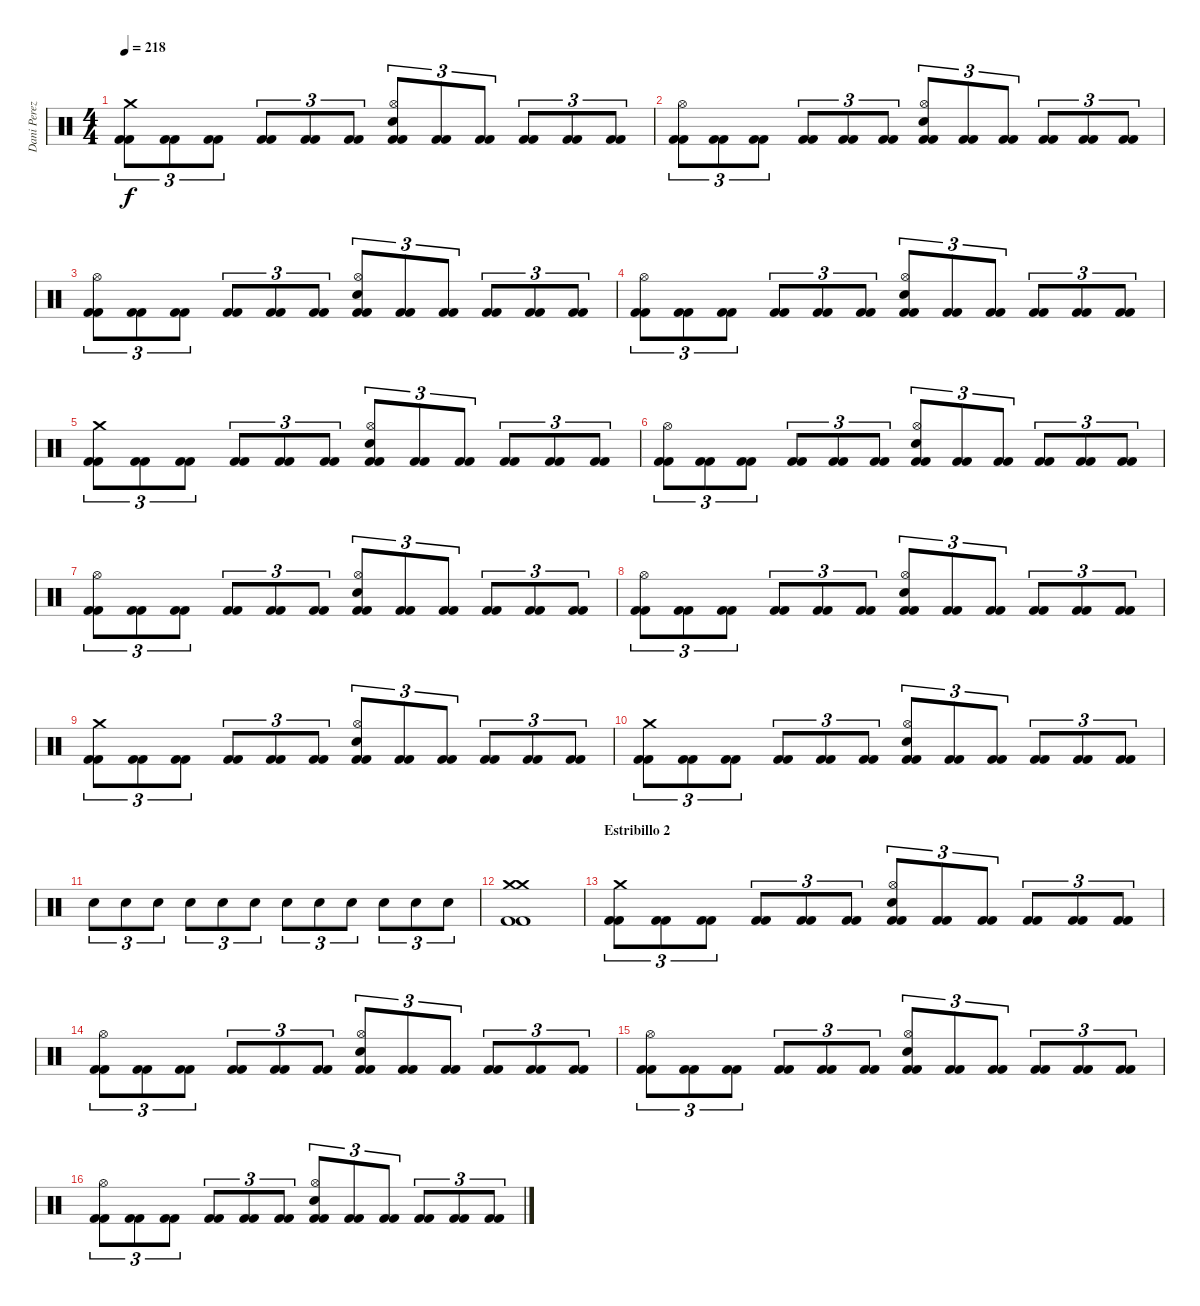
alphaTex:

\track ("Dani Perez" "Dani Perez") {instrument percussion}
\staff {score}
\articulation defaults
\ts (4 4)
\tempo 218
\clef neutral
\ks c
("Crash medium (hit)" "Kick (hit) 2" "Kick (hit) 2").8{tu (3 2) dy f} ("Kick (hit) 2" "Kick (hit) 2").8{tu (3 2)} ("Kick (hit) 2" "Kick (hit) 2").8{tu (3 2)} ("Kick (hit) 2" "Kick (hit) 2").8{tu (3 2)} ("Kick (hit) 2" "Kick (hit) 2").8{tu (3 2)} ("Kick (hit) 2" "Kick (hit) 2").8{tu (3 2)} ("Hi-Hat (open)" "Snare (hit) 2" "Kick (hit) 2" "Kick (hit) 2").8{tu (3 2)} ("Kick (hit) 2" "Kick (hit) 2").8{tu (3 2)} ("Kick (hit) 2" "Kick (hit) 2").8{tu (3 2)} ("Kick (hit) 2" "Kick (hit) 2").8{tu (3 2)} ("Kick (hit) 2" "Kick (hit) 2").8{tu (3 2)} ("Kick (hit) 2" "Kick (hit) 2").8{tu (3 2)} |
("Hi-Hat (open)" "Kick (hit) 2" "Kick (hit) 2").8{tu (3 2)} ("Kick (hit) 2" "Kick (hit) 2").8{tu (3 2)} ("Kick (hit) 2" "Kick (hit) 2").8{tu (3 2)} ("Kick (hit) 2" "Kick (hit) 2").8{tu (3 2)} ("Kick (hit) 2" "Kick (hit) 2").8{tu (3 2)} ("Kick (hit) 2" "Kick (hit) 2").8{tu (3 2)} ("Hi-Hat (open)" "Snare (hit) 2" "Kick (hit) 2" "Kick (hit) 2").8{tu (3 2)} ("Kick (hit) 2" "Kick (hit) 2").8{tu (3 2)} ("Kick (hit) 2" "Kick (hit) 2").8{tu (3 2)} ("Kick (hit) 2" "Kick (hit) 2").8{tu (3 2)} ("Kick (hit) 2" "Kick (hit) 2").8{tu (3 2)} ("Kick (hit) 2" "Kick (hit) 2").8{tu (3 2)} |
("Hi-Hat (open)" "Kick (hit) 2" "Kick (hit) 2").8{tu (3 2)} ("Kick (hit) 2" "Kick (hit) 2").8{tu (3 2)} ("Kick (hit) 2" "Kick (hit) 2").8{tu (3 2)} ("Kick (hit) 2" "Kick (hit) 2").8{tu (3 2)} ("Kick (hit) 2" "Kick (hit) 2").8{tu (3 2)} ("Kick (hit) 2" "Kick (hit) 2").8{tu (3 2)} ("Hi-Hat (open)" "Snare (hit) 2" "Kick (hit) 2" "Kick (hit) 2").8{tu (3 2)} ("Kick (hit) 2" "Kick (hit) 2").8{tu (3 2)} ("Kick (hit) 2" "Kick (hit) 2").8{tu (3 2)} ("Kick (hit) 2" "Kick (hit) 2").8{tu (3 2)} ("Kick (hit) 2" "Kick (hit) 2").8{tu (3 2)} ("Kick (hit) 2" "Kick (hit) 2").8{tu (3 2)} |
("Hi-Hat (open)" "Kick (hit) 2" "Kick (hit) 2").8{tu (3 2)} ("Kick (hit) 2" "Kick (hit) 2").8{tu (3 2)} ("Kick (hit) 2" "Kick (hit) 2").8{tu (3 2)} ("Kick (hit) 2" "Kick (hit) 2").8{tu (3 2)} ("Kick (hit) 2" "Kick (hit) 2").8{tu (3 2)} ("Kick (hit) 2" "Kick (hit) 2").8{tu (3 2)} ("Hi-Hat (open)" "Snare (hit) 2" "Kick (hit) 2" "Kick (hit) 2").8{tu (3 2)} ("Kick (hit) 2" "Kick (hit) 2").8{tu (3 2)} ("Kick (hit) 2" "Kick (hit) 2").8{tu (3 2)} ("Kick (hit) 2" "Kick (hit) 2").8{tu (3 2)} ("Kick (hit) 2" "Kick (hit) 2").8{tu (3 2)} ("Kick (hit) 2" "Kick (hit) 2").8{tu (3 2)} |
("Crash medium (hit)" "Kick (hit) 2" "Kick (hit) 2").8{tu (3 2)} ("Kick (hit) 2" "Kick (hit) 2").8{tu (3 2)} ("Kick (hit) 2" "Kick (hit) 2").8{tu (3 2)} ("Kick (hit) 2" "Kick (hit) 2").8{tu (3 2)} ("Kick (hit) 2" "Kick (hit) 2").8{tu (3 2)} ("Kick (hit) 2" "Kick (hit) 2").8{tu (3 2)} ("Hi-Hat (open)" "Snare (hit) 2" "Kick (hit) 2" "Kick (hit) 2").8{tu (3 2)} ("Kick (hit) 2" "Kick (hit) 2").8{tu (3 2)} ("Kick (hit) 2" "Kick (hit) 2").8{tu (3 2)} ("Kick (hit) 2" "Kick (hit) 2").8{tu (3 2)} ("Kick (hit) 2" "Kick (hit) 2").8{tu (3 2)} ("Kick (hit) 2" "Kick (hit) 2").8{tu (3 2)} |
("Hi-Hat (open)" "Kick (hit) 2" "Kick (hit) 2").8{tu (3 2)} ("Kick (hit) 2" "Kick (hit) 2").8{tu (3 2)} ("Kick (hit) 2" "Kick (hit) 2").8{tu (3 2)} ("Kick (hit) 2" "Kick (hit) 2").8{tu (3 2)} ("Kick (hit) 2" "Kick (hit) 2").8{tu (3 2)} ("Kick (hit) 2" "Kick (hit) 2").8{tu (3 2)} ("Hi-Hat (open)" "Snare (hit) 2" "Kick (hit) 2" "Kick (hit) 2").8{tu (3 2)} ("Kick (hit) 2" "Kick (hit) 2").8{tu (3 2)} ("Kick (hit) 2" "Kick (hit) 2").8{tu (3 2)} ("Kick (hit) 2" "Kick (hit) 2").8{tu (3 2)} ("Kick (hit) 2" "Kick (hit) 2").8{tu (3 2)} ("Kick (hit) 2" "Kick (hit) 2").8{tu (3 2)} |
("Hi-Hat (open)" "Kick (hit) 2" "Kick (hit) 2").8{tu (3 2)} ("Kick (hit) 2" "Kick (hit) 2").8{tu (3 2)} ("Kick (hit) 2" "Kick (hit) 2").8{tu (3 2)} ("Kick (hit) 2" "Kick (hit) 2").8{tu (3 2)} ("Kick (hit) 2" "Kick (hit) 2").8{tu (3 2)} ("Kick (hit) 2" "Kick (hit) 2").8{tu (3 2)} ("Hi-Hat (open)" "Snare (hit) 2" "Kick (hit) 2" "Kick (hit) 2").8{tu (3 2)} ("Kick (hit) 2" "Kick (hit) 2").8{tu (3 2)} ("Kick (hit) 2" "Kick (hit) 2").8{tu (3 2)} ("Kick (hit) 2" "Kick (hit) 2").8{tu (3 2)} ("Kick (hit) 2" "Kick (hit) 2").8{tu (3 2)} ("Kick (hit) 2" "Kick (hit) 2").8{tu (3 2)} |
("Hi-Hat (open)" "Kick (hit) 2" "Kick (hit) 2").8{tu (3 2)} ("Kick (hit) 2" "Kick (hit) 2").8{tu (3 2)} ("Kick (hit) 2" "Kick (hit) 2").8{tu (3 2)} ("Kick (hit) 2" "Kick (hit) 2").8{tu (3 2)} ("Kick (hit) 2" "Kick (hit) 2").8{tu (3 2)} ("Kick (hit) 2" "Kick (hit) 2").8{tu (3 2)} ("Hi-Hat (open)" "Snare (hit) 2" "Kick (hit) 2" "Kick (hit) 2").8{tu (3 2)} ("Kick (hit) 2" "Kick (hit) 2").8{tu (3 2)} ("Kick (hit) 2" "Kick (hit) 2").8{tu (3 2)} ("Kick (hit) 2" "Kick (hit) 2").8{tu (3 2)} ("Kick (hit) 2" "Kick (hit) 2").8{tu (3 2)} ("Kick (hit) 2" "Kick (hit) 2").8{tu (3 2)} |
("Crash medium (hit)" "Kick (hit) 2" "Kick (hit) 2").8{tu (3 2)} ("Kick (hit) 2" "Kick (hit) 2").8{tu (3 2)} ("Kick (hit) 2" "Kick (hit) 2").8{tu (3 2)} ("Kick (hit) 2" "Kick (hit) 2").8{tu (3 2)} ("Kick (hit) 2" "Kick (hit) 2").8{tu (3 2)} ("Kick (hit) 2" "Kick (hit) 2").8{tu (3 2)} ("Hi-Hat (open)" "Snare (hit) 2" "Kick (hit) 2" "Kick (hit) 2").8{tu (3 2)} ("Kick (hit) 2" "Kick (hit) 2").8{tu (3 2)} ("Kick (hit) 2" "Kick (hit) 2").8{tu (3 2)} ("Kick (hit) 2" "Kick (hit) 2").8{tu (3 2)} ("Kick (hit) 2" "Kick (hit) 2").8{tu (3 2)} ("Kick (hit) 2" "Kick (hit) 2").8{tu (3 2)} |
("Crash medium (hit)" "Kick (hit) 2" "Kick (hit) 2").8{tu (3 2)} ("Kick (hit) 2" "Kick (hit) 2").8{tu (3 2)} ("Kick (hit) 2" "Kick (hit) 2").8{tu (3 2)} ("Kick (hit) 2" "Kick (hit) 2").8{tu (3 2)} ("Kick (hit) 2" "Kick (hit) 2").8{tu (3 2)} ("Kick (hit) 2" "Kick (hit) 2").8{tu (3 2)} ("Hi-Hat (open)" "Snare (hit) 2" "Kick (hit) 2" "Kick (hit) 2").8{tu (3 2)} ("Kick (hit) 2" "Kick (hit) 2").8{tu (3 2)} ("Kick (hit) 2" "Kick (hit) 2").8{tu (3 2)} ("Kick (hit) 2" "Kick (hit) 2").8{tu (3 2)} ("Kick (hit) 2" "Kick (hit) 2").8{tu (3 2)} ("Kick (hit) 2" "Kick (hit) 2").8{tu (3 2)} |
"Snare (hit) 2".8{tu (3 2)} "Snare (hit) 2".8{tu (3 2)} "Snare (hit) 2".8{tu (3 2)} "Snare (hit) 2".8{tu (3 2)} "Snare (hit) 2".8{tu (3 2)} "Snare (hit) 2".8{tu (3 2)} "Snare (hit) 2".8{tu (3 2)} "Snare (hit) 2".8{tu (3 2)} "Snare (hit) 2".8{tu (3 2)} "Snare (hit) 2".8{tu (3 2)} "Snare (hit) 2".8{tu (3 2)} "Snare (hit) 2".8{tu (3 2)} |
("Crash medium (hit)" "Crash medium (hit)" "Kick (hit) 2" "Kick (hit) 2").1 |
\section ("" "Estribillo 2")
("Crash medium (hit)" "Kick (hit) 2" "Kick (hit) 2").8{tu (3 2)} ("Kick (hit) 2" "Kick (hit) 2").8{tu (3 2)} ("Kick (hit) 2" "Kick (hit) 2").8{tu (3 2)} ("Kick (hit) 2" "Kick (hit) 2").8{tu (3 2)} ("Kick (hit) 2" "Kick (hit) 2").8{tu (3 2)} ("Kick (hit) 2" "Kick (hit) 2").8{tu (3 2)} ("Hi-Hat (open)" "Snare (hit) 2" "Kick (hit) 2" "Kick (hit) 2").8{tu (3 2)} ("Kick (hit) 2" "Kick (hit) 2").8{tu (3 2)} ("Kick (hit) 2" "Kick (hit) 2").8{tu (3 2)} ("Kick (hit) 2" "Kick (hit) 2").8{tu (3 2)} ("Kick (hit) 2" "Kick (hit) 2").8{tu (3 2)} ("Kick (hit) 2" "Kick (hit) 2").8{tu (3 2)} |
("Hi-Hat (open)" "Kick (hit) 2" "Kick (hit) 2").8{tu (3 2)} ("Kick (hit) 2" "Kick (hit) 2").8{tu (3 2)} ("Kick (hit) 2" "Kick (hit) 2").8{tu (3 2)} ("Kick (hit) 2" "Kick (hit) 2").8{tu (3 2)} ("Kick (hit) 2" "Kick (hit) 2").8{tu (3 2)} ("Kick (hit) 2" "Kick (hit) 2").8{tu (3 2)} ("Hi-Hat (open)" "Snare (hit) 2" "Kick (hit) 2" "Kick (hit) 2").8{tu (3 2)} ("Kick (hit) 2" "Kick (hit) 2").8{tu (3 2)} ("Kick (hit) 2" "Kick (hit) 2").8{tu (3 2)} ("Kick (hit) 2" "Kick (hit) 2").8{tu (3 2)} ("Kick (hit) 2" "Kick (hit) 2").8{tu (3 2)} ("Kick (hit) 2" "Kick (hit) 2").8{tu (3 2)} |
("Hi-Hat (open)" "Kick (hit) 2" "Kick (hit) 2").8{tu (3 2)} ("Kick (hit) 2" "Kick (hit) 2").8{tu (3 2)} ("Kick (hit) 2" "Kick (hit) 2").8{tu (3 2)} ("Kick (hit) 2" "Kick (hit) 2").8{tu (3 2)} ("Kick (hit) 2" "Kick (hit) 2").8{tu (3 2)} ("Kick (hit) 2" "Kick (hit) 2").8{tu (3 2)} ("Hi-Hat (open)" "Snare (hit) 2" "Kick (hit) 2" "Kick (hit) 2").8{tu (3 2)} ("Kick (hit) 2" "Kick (hit) 2").8{tu (3 2)} ("Kick (hit) 2" "Kick (hit) 2").8{tu (3 2)} ("Kick (hit) 2" "Kick (hit) 2").8{tu (3 2)} ("Kick (hit) 2" "Kick (hit) 2").8{tu (3 2)} ("Kick (hit) 2" "Kick (hit) 2").8{tu (3 2)} |
("Hi-Hat (open)" "Kick (hit) 2" "Kick (hit) 2").8{tu (3 2)} ("Kick (hit) 2" "Kick (hit) 2").8{tu (3 2)} ("Kick (hit) 2" "Kick (hit) 2").8{tu (3 2)} ("Kick (hit) 2" "Kick (hit) 2").8{tu (3 2)} ("Kick (hit) 2" "Kick (hit) 2").8{tu (3 2)} ("Kick (hit) 2" "Kick (hit) 2").8{tu (3 2)} ("Hi-Hat (open)" "Snare (hit) 2" "Kick (hit) 2" "Kick (hit) 2").8{tu (3 2)} ("Kick (hit) 2" "Kick (hit) 2").8{tu (3 2)} ("Kick (hit) 2" "Kick (hit) 2").8{tu (3 2)} ("Kick (hit) 2" "Kick (hit) 2").8{tu (3 2)} ("Kick (hit) 2" "Kick (hit) 2").8{tu (3 2)} ("Kick (hit) 2" "Kick (hit) 2").8{tu (3 2)}
